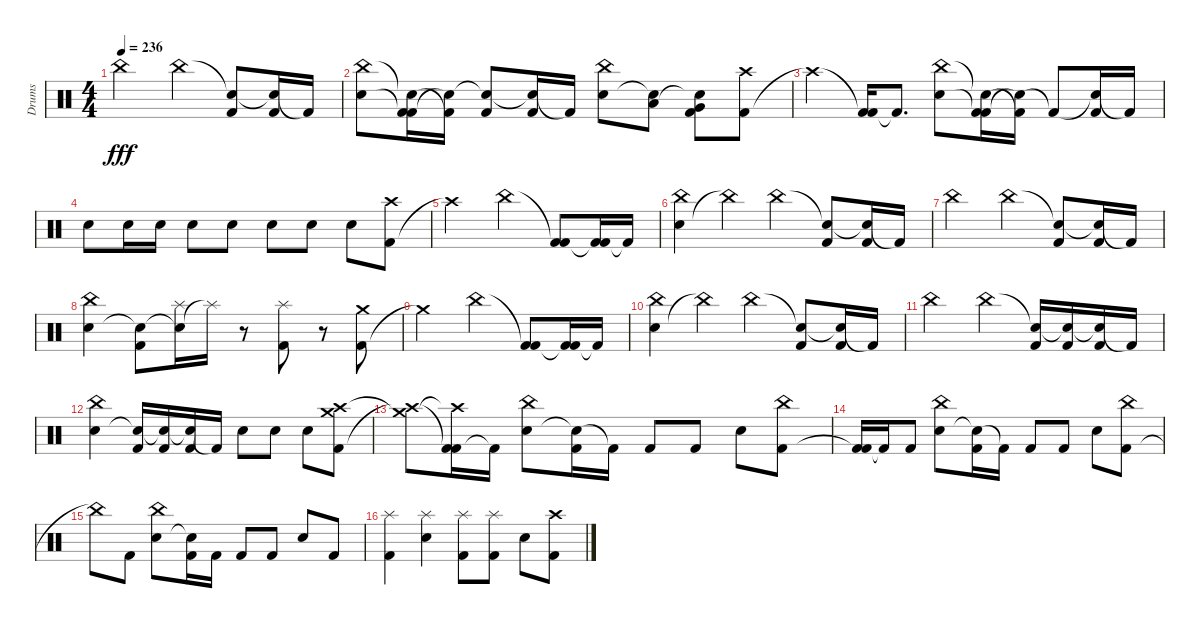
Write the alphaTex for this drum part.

\track ("Drums" "Drums") {instrument percussion}
\staff {score}
\articulation defaults
\ts (4 4)
\tempo 236
\clef neutral
\ks c "China (hit)".2{dy fff} "China (hit)".4
("Snare (hit) 2"{t} "Kick (hit) 2").8 ("Snare (hit) 2"{t} "Kick (hit) 2").16 "Kick (hit) 2"{t}.16 |
("Snare (hit) 2" "China (hit)").8 ("Kick (hit) 2"{t} "Snare (hit) 2"{t} "Kick (hit) 2").16 ("Snare (hit) 2"{t} "Kick (hit) 2"{t}).16 ("Snare (hit) 2"{t} "Kick (hit) 2").8 ("Snare (hit) 2"{t} "Kick (hit) 2").16 "Kick (hit) 2"{t}.16 ("Snare (hit) 2" "China (hit)").8 ("Snare (hit) 2"{t} "Low Tom (hit)").8 ("Kick (hit) 2" "Snare (hit) 2"{t} "Very Low Tom (hit)").8 ("Kick (hit) 2" "Crash high (hit)").8 |
"Crash high (hit)"{t}.4 ("Kick (hit) 2"{t} "Kick (hit) 2").16 "Kick (hit) 2"{t}.8{d} ("Snare (hit) 2" "China (hit)").8 ("Kick (hit) 2"{t} "Snare (hit) 2"{t} "Kick (hit) 2").16 ("Snare (hit) 2"{t} "Kick (hit) 2"{t}).16 "Kick (hit) 2"{t}.8 ("Snare (hit) 2"{t} "Kick (hit) 2").16 "Kick (hit) 2"{t}.16 |
"Snare (hit) 2".8 "Snare (hit) 2".16 "Snare (hit) 2".16 "Snare (hit) 2".8 "Snare (hit) 2".8 "Snare (hit) 2".8 "Snare (hit) 2".8 "Snare (hit) 2".8 ("Kick (hit) 2" "Crash high (hit)").8 |
"Crash high (hit)"{t}.2 "China (hit)".4 ("Kick (hit) 2"{t} "Kick (hit) 2").8 ("Kick (hit) 2"{t} "Kick (hit) 2").16 "Kick (hit) 2"{t}.16 |
("Snare (hit) 2" "China (hit)").4 "China (hit)"{t}.4 "China (hit)".4 ("Snare (hit) 2"{t} "Kick (hit) 2").8 ("Snare (hit) 2"{t} "Kick (hit) 2").16 "Kick (hit) 2"{t}.16 |
"China (hit)".2 "China (hit)".4 ("Snare (hit) 2"{t} "Kick (hit) 2").8 ("Snare (hit) 2"{t} "Kick (hit) 2").16 "Kick (hit) 2"{t}.16 |
("Snare (hit) 2" "China (hit)").4 ("Snare (hit) 2"{t} "Kick (hit) 2").8 ("Snare (hit) 2"{t} "Splash (hit)").16 "Splash (hit)"{t}.16 r.8 ("Kick (hit) 2" "Splash (hit)").8 r.8 ("Kick (hit) 2" "Crash medium (hit)").8 |
"Crash medium (hit)"{t}.2 "China (hit)".4 ("Kick (hit) 2"{t} "Kick (hit) 2").8 ("Kick (hit) 2"{t} "Kick (hit) 2").16 "Kick (hit) 2"{t}.16 |
("Snare (hit) 2" "China (hit)").4 "China (hit)"{t}.4 "China (hit)".4 ("Snare (hit) 2"{t} "Kick (hit) 2").8 ("Snare (hit) 2"{t} "Kick (hit) 2").16 "Kick (hit) 2"{t}.16 |
"China (hit)".2 "China (hit)".4 ("Snare (hit) 2"{t} "Kick (hit) 2").16 ("Snare (hit) 2"{t} "Kick (hit) 2").16 ("Snare (hit) 2"{t} "Kick (hit) 2").16 "Kick (hit) 2"{t}.16 |
("Snare (hit) 2" "China (hit)").4 ("Snare (hit) 2"{t} "Kick (hit) 2").16 ("Snare (hit) 2"{t} "Kick (hit) 2").16 ("Snare (hit) 2"{t} "Kick (hit) 2").16 "Kick (hit) 2"{t}.16 "Snare (hit) 2".8 "Snare (hit) 2".8 "Snare (hit) 2".8 ("Kick (hit) 2" "Crash high (hit)" "Crash medium (hit)").8 |
("Crash high (hit)"{t} "Crash medium (hit)"{t}).8 ("Kick (hit) 2"{t} "Crash high (hit)"{t} "Kick (hit) 2").16 "Kick (hit) 2"{t}.16 ("Snare (hit) 2" "China (hit)").8 ("Snare (hit) 2"{t} "Kick (hit) 2").16 "Kick (hit) 2"{t}.16 "Kick (hit) 2".8 "Kick (hit) 2".8 "Snare (hit) 2".8 ("Kick (hit) 2" "China (hit)").8 |
("Kick (hit) 2"{t} "Kick (hit) 2").16 "Kick (hit) 2"{t}.16 "Kick (hit) 2".8 ("Snare (hit) 2" "China (hit)").8 ("Snare (hit) 2"{t} "Kick (hit) 2").16 "Kick (hit) 2"{t}.16 "Kick (hit) 2".8 "Kick (hit) 2".8 "Snare (hit) 2".8 ("Kick (hit) 2" "China (hit)").8 |
"China (hit)"{t}.8 "Kick (hit) 2".8 ("Snare (hit) 2" "China (hit)").8 ("Snare (hit) 2"{t} "Kick (hit) 2").16 "Kick (hit) 2".16 "Kick (hit) 2".8 "Kick (hit) 2".8 "Snare (hit) 2".8 "Kick (hit) 2".8 |
("Kick (hit) 2" "Splash (hit)").4 ("Snare (hit) 2" "Splash (hit)").4 ("Kick (hit) 2" "Splash (hit)").8 ("Kick (hit) 2" "Splash (hit)").8 "Snare (hit) 2".8 ("Kick (hit) 2" "Crash high (hit)").8
